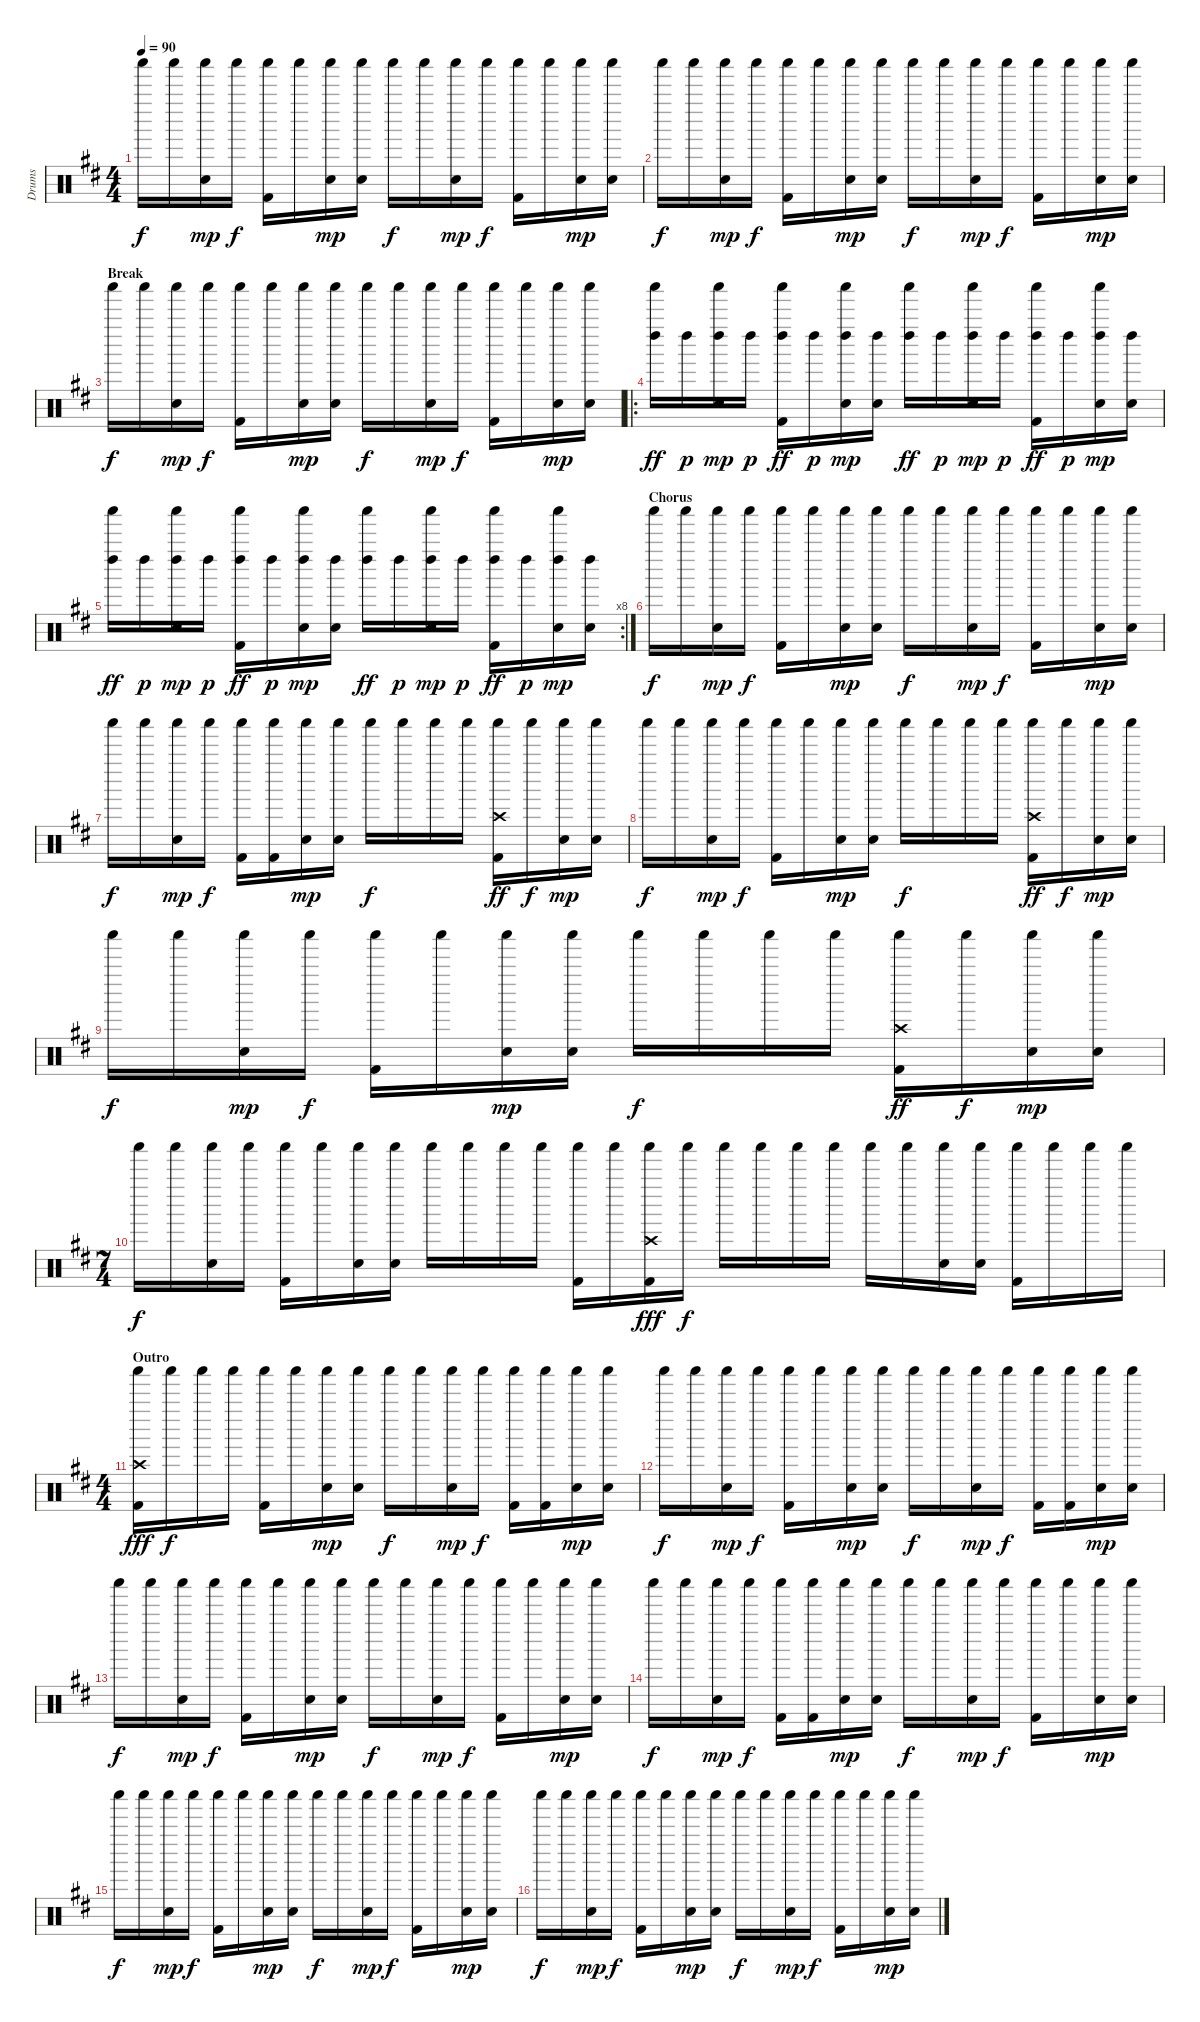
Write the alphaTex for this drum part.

\track ("Drums" "Drums") {instrument percussion}
\staff {score}
\articulation defaults
\ts (4 4)
\tempo 90
\clef neutral
\ks bminor "Shaker (hit)".16{dy f} "Shaker (hit)".16
("Shaker (hit)" "Electric Snare (hit)").16{dy mp} "Shaker (hit)".16{dy f} ("Shaker (hit)" "Kick (hit) 2").16 "Shaker (hit)".16 ("Shaker (hit)" "Electric Snare (hit)").16{dy mp} ("Shaker (hit)" "Electric Snare (hit)").16 "Shaker (hit)".16{dy f} "Shaker (hit)".16 ("Shaker (hit)" "Electric Snare (hit)").16{dy mp} "Shaker (hit)".16{dy f} ("Shaker (hit)" "Kick (hit) 2").16 "Shaker (hit)".16 ("Shaker (hit)" "Electric Snare (hit)").16{dy mp} ("Shaker (hit)" "Electric Snare (hit)").16 |
"Shaker (hit)".16{dy f} "Shaker (hit)".16 ("Shaker (hit)" "Electric Snare (hit)").16{dy mp} "Shaker (hit)".16{dy f} ("Shaker (hit)" "Kick (hit) 2").16 "Shaker (hit)".16 ("Shaker (hit)" "Electric Snare (hit)").16{dy mp} ("Shaker (hit)" "Electric Snare (hit)").16 "Shaker (hit)".16{dy f} "Shaker (hit)".16 ("Shaker (hit)" "Electric Snare (hit)").16{dy mp} "Shaker (hit)".16{dy f} ("Shaker (hit)" "Kick (hit) 2").16 "Shaker (hit)".16 ("Shaker (hit)" "Electric Snare (hit)").16{dy mp} ("Shaker (hit)" "Electric Snare (hit)").16 |
\section ("" "Break")
"Shaker (hit)".16{dy f} "Shaker (hit)".16 ("Shaker (hit)" "Electric Snare (hit)").16{dy mp} "Shaker (hit)".16{dy f} ("Shaker (hit)" "Kick (hit) 2").16 "Shaker (hit)".16 ("Shaker (hit)" "Electric Snare (hit)").16{dy mp} ("Shaker (hit)" "Electric Snare (hit)").16 "Shaker (hit)".16{dy f} "Shaker (hit)".16 ("Shaker (hit)" "Electric Snare (hit)").16{dy mp} "Shaker (hit)".16{dy f} ("Shaker (hit)" "Kick (hit) 2").16 "Shaker (hit)".16 ("Shaker (hit)" "Electric Snare (hit)").16{dy mp} ("Shaker (hit)" "Electric Snare (hit)").16 |
\ro
("Left Maraca (hit)" "Shaker (hit)").16{dy ff} "Left Maraca (hit)".16{dy p} ("Left Maraca (hit)" "Shaker (hit)" "Electric Snare (hit)").16{dy mp} "Left Maraca (hit)".16{dy p} ("Left Maraca (hit)" "Shaker (hit)" "Kick (hit) 2").16{dy ff} "Left Maraca (hit)".16{dy p} ("Left Maraca (hit)" "Shaker (hit)" "Electric Snare (hit)").16{dy mp} ("Left Maraca (hit)" "Electric Snare (hit)").16 ("Left Maraca (hit)" "Shaker (hit)").16{dy ff} "Left Maraca (hit)".16{dy p} ("Left Maraca (hit)" "Shaker (hit)" "Electric Snare (hit)").16{dy mp} "Left Maraca (hit)".16{dy p} ("Left Maraca (hit)" "Shaker (hit)" "Kick (hit) 2").16{dy ff} "Left Maraca (hit)".16{dy p} ("Left Maraca (hit)" "Shaker (hit)" "Electric Snare (hit)").16{dy mp} ("Left Maraca (hit)" "Electric Snare (hit)").16 |
\rc 8
("Left Maraca (hit)" "Shaker (hit)").16{dy ff} "Left Maraca (hit)".16{dy p} ("Left Maraca (hit)" "Shaker (hit)" "Electric Snare (hit)").16{dy mp} "Left Maraca (hit)".16{dy p} ("Left Maraca (hit)" "Shaker (hit)" "Kick (hit) 2").16{dy ff} "Left Maraca (hit)".16{dy p} ("Left Maraca (hit)" "Shaker (hit)" "Electric Snare (hit)").16{dy mp} ("Left Maraca (hit)" "Electric Snare (hit)").16 ("Left Maraca (hit)" "Shaker (hit)").16{dy ff} "Left Maraca (hit)".16{dy p} ("Left Maraca (hit)" "Shaker (hit)" "Electric Snare (hit)").16{dy mp} "Left Maraca (hit)".16{dy p} ("Left Maraca (hit)" "Shaker (hit)" "Kick (hit) 2").16{dy ff} "Left Maraca (hit)".16{dy p} ("Left Maraca (hit)" "Shaker (hit)" "Electric Snare (hit)").16{dy mp} ("Left Maraca (hit)" "Electric Snare (hit)").16 |
\section ("" "Chorus")
"Shaker (hit)".16{dy f} "Shaker (hit)".16 ("Shaker (hit)" "Electric Snare (hit)").16{dy mp} "Shaker (hit)".16{dy f} ("Shaker (hit)" "Kick (hit) 2").16 "Shaker (hit)".16 ("Shaker (hit)" "Electric Snare (hit)").16{dy mp} ("Shaker (hit)" "Electric Snare (hit)").16 "Shaker (hit)".16{dy f} "Shaker (hit)".16 ("Shaker (hit)" "Electric Snare (hit)").16{dy mp} "Shaker (hit)".16{dy f} ("Shaker (hit)" "Kick (hit) 2").16 "Shaker (hit)".16 ("Shaker (hit)" "Electric Snare (hit)").16{dy mp} ("Shaker (hit)" "Electric Snare (hit)").16 |
"Shaker (hit)".16{dy f} "Shaker (hit)".16 ("Shaker (hit)" "Electric Snare (hit)").16{dy mp} "Shaker (hit)".16{dy f} ("Shaker (hit)" "Kick (hit) 2").16 ("Shaker (hit)" "Kick (hit) 2").16 ("Shaker (hit)" "Electric Snare (hit)").16{dy mp} ("Shaker (hit)" "Electric Snare (hit)").16 "Shaker (hit)".16{dy f} "Shaker (hit)".16 "Shaker (hit)".16 "Shaker (hit)".16 ("Shaker (hit)" "Crash high (hit)" "Kick (hit) 2").16{dy ff} "Shaker (hit)".16{dy f} ("Shaker (hit)" "Electric Snare (hit)").16{dy mp} ("Shaker (hit)" "Electric Snare (hit)").16 |
"Shaker (hit)".16{dy f} "Shaker (hit)".16 ("Shaker (hit)" "Electric Snare (hit)").16{dy mp} "Shaker (hit)".16{dy f} ("Shaker (hit)" "Kick (hit) 2").16 "Shaker (hit)".16 ("Shaker (hit)" "Electric Snare (hit)").16{dy mp} ("Shaker (hit)" "Electric Snare (hit)").16 "Shaker (hit)".16{dy f} "Shaker (hit)".16 "Shaker (hit)".16 "Shaker (hit)".16 ("Shaker (hit)" "Crash high (hit)" "Kick (hit) 2").16{dy ff} "Shaker (hit)".16{dy f} ("Shaker (hit)" "Electric Snare (hit)").16{dy mp} ("Shaker (hit)" "Electric Snare (hit)").16 |
"Shaker (hit)".16{dy f} "Shaker (hit)".16 ("Shaker (hit)" "Electric Snare (hit)").16{dy mp} "Shaker (hit)".16{dy f} ("Shaker (hit)" "Kick (hit) 2").16 "Shaker (hit)".16 ("Shaker (hit)" "Electric Snare (hit)").16{dy mp} ("Shaker (hit)" "Electric Snare (hit)").16 "Shaker (hit)".16{dy f} "Shaker (hit)".16 "Shaker (hit)".16 "Shaker (hit)".16 ("Shaker (hit)" "Crash high (hit)" "Kick (hit) 2").16{dy ff} "Shaker (hit)".16{dy f} ("Shaker (hit)" "Electric Snare (hit)").16{dy mp} ("Shaker (hit)" "Electric Snare (hit)").16 |
\ts (7 4)
"Shaker (hit)".16{dy f} "Shaker (hit)".16 ("Shaker (hit)" "Electric Snare (hit)").16 "Shaker (hit)".16 ("Shaker (hit)" "Kick (hit) 2").16 "Shaker (hit)".16 ("Shaker (hit)" "Electric Snare (hit)").16 ("Shaker (hit)" "Electric Snare (hit)").16 "Shaker (hit)".16 "Shaker (hit)".16 "Shaker (hit)".16 "Shaker (hit)".16 ("Shaker (hit)" "Kick (hit) 2").16 "Shaker (hit)".16 ("Shaker (hit)" "Crash high (hit)" "Kick (hit) 2").16{dy fff} "Shaker (hit)".16{dy f} "Shaker (hit)".16 "Shaker (hit)".16 "Shaker (hit)".16 "Shaker (hit)".16 "Shaker (hit)".16 "Shaker (hit)".16 ("Shaker (hit)" "Electric Snare (hit)").16 ("Shaker (hit)" "Electric Snare (hit)").16 ("Shaker (hit)" "Kick (hit) 2").16 "Shaker (hit)".16 "Shaker (hit)".16 "Shaker (hit)".16 |
\ts (4 4)
\section ("" "Outro")
("Shaker (hit)" "Crash high (hit)" "Kick (hit) 2").16{dy fff volume 13} "Shaker (hit)".16{dy f} "Shaker (hit)".16 "Shaker (hit)".16 ("Shaker (hit)" "Kick (hit) 2").16 "Shaker (hit)".16 ("Shaker (hit)" "Electric Snare (hit)").16{dy mp} ("Shaker (hit)" "Electric Snare (hit)").16 "Shaker (hit)".16{dy f} "Shaker (hit)".16 ("Shaker (hit)" "Electric Snare (hit)").16{dy mp} "Shaker (hit)".16{dy f} ("Shaker (hit)" "Kick (hit) 2").16 ("Shaker (hit)" "Kick (hit) 2").16 ("Shaker (hit)" "Electric Snare (hit)").16{dy mp} ("Shaker (hit)" "Electric Snare (hit)").16 |
"Shaker (hit)".16{dy f volume 12} "Shaker (hit)".16 ("Shaker (hit)" "Electric Snare (hit)").16{dy mp} "Shaker (hit)".16{dy f} ("Shaker (hit)" "Kick (hit) 2").16 "Shaker (hit)".16 ("Shaker (hit)" "Electric Snare (hit)").16{dy mp} ("Shaker (hit)" "Electric Snare (hit)").16 "Shaker (hit)".16{dy f} "Shaker (hit)".16 ("Shaker (hit)" "Electric Snare (hit)").16{dy mp} "Shaker (hit)".16{dy f} ("Shaker (hit)" "Kick (hit) 2").16 ("Shaker (hit)" "Kick (hit) 2").16 ("Shaker (hit)" "Electric Snare (hit)").16{dy mp} ("Shaker (hit)" "Electric Snare (hit)").16 |
"Shaker (hit)".16{dy f volume 11} "Shaker (hit)".16 ("Shaker (hit)" "Electric Snare (hit)").16{dy mp} "Shaker (hit)".16{dy f} ("Shaker (hit)" "Kick (hit) 2").16 "Shaker (hit)".16 ("Shaker (hit)" "Electric Snare (hit)").16{dy mp} ("Shaker (hit)" "Electric Snare (hit)").16 "Shaker (hit)".16{dy f} "Shaker (hit)".16 ("Shaker (hit)" "Electric Snare (hit)").16{dy mp} "Shaker (hit)".16{dy f} ("Shaker (hit)" "Kick (hit) 2").16 "Shaker (hit)".16 ("Shaker (hit)" "Electric Snare (hit)").16{dy mp} ("Shaker (hit)" "Electric Snare (hit)").16 |
"Shaker (hit)".16{dy f volume 10} "Shaker (hit)".16 ("Shaker (hit)" "Electric Snare (hit)").16{dy mp} "Shaker (hit)".16{dy f} ("Shaker (hit)" "Kick (hit) 2").16 ("Shaker (hit)" "Kick (hit) 2").16 ("Shaker (hit)" "Electric Snare (hit)").16{dy mp} ("Shaker (hit)" "Electric Snare (hit)").16 "Shaker (hit)".16{dy f} "Shaker (hit)".16 ("Shaker (hit)" "Electric Snare (hit)").16{dy mp} "Shaker (hit)".16{dy f} ("Shaker (hit)" "Kick (hit) 2").16 "Shaker (hit)".16 ("Shaker (hit)" "Electric Snare (hit)").16{dy mp} ("Shaker (hit)" "Electric Snare (hit)").16 |
"Shaker (hit)".16{dy f volume 9} "Shaker (hit)".16 ("Shaker (hit)" "Electric Snare (hit)").16{dy mp} "Shaker (hit)".16{dy f} ("Shaker (hit)" "Kick (hit) 2").16 "Shaker (hit)".16 ("Shaker (hit)" "Electric Snare (hit)").16{dy mp} ("Shaker (hit)" "Electric Snare (hit)").16 "Shaker (hit)".16{dy f} "Shaker (hit)".16 ("Shaker (hit)" "Electric Snare (hit)").16{dy mp} "Shaker (hit)".16{dy f} ("Shaker (hit)" "Kick (hit) 2").16 "Shaker (hit)".16 ("Shaker (hit)" "Electric Snare (hit)").16{dy mp} ("Shaker (hit)" "Electric Snare (hit)").16 |
"Shaker (hit)".16{dy f volume 8} "Shaker (hit)".16 ("Shaker (hit)" "Electric Snare (hit)").16{dy mp} "Shaker (hit)".16{dy f} ("Shaker (hit)" "Kick (hit) 2").16 "Shaker (hit)".16 ("Shaker (hit)" "Electric Snare (hit)").16{dy mp} ("Shaker (hit)" "Electric Snare (hit)").16 "Shaker (hit)".16{dy f} "Shaker (hit)".16 ("Shaker (hit)" "Electric Snare (hit)").16{dy mp} "Shaker (hit)".16{dy f} ("Shaker (hit)" "Kick (hit) 2").16 "Shaker (hit)".16 ("Shaker (hit)" "Electric Snare (hit)").16{dy mp} ("Shaker (hit)" "Electric Snare (hit)").16
